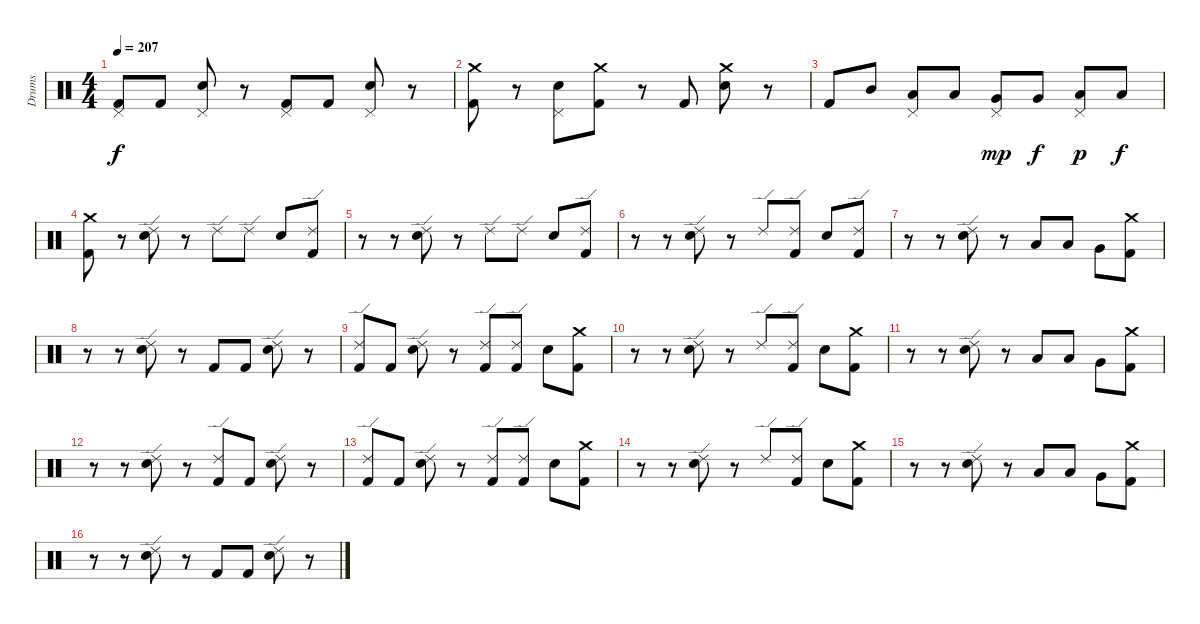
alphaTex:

\track ("Drums" "Drums") {instrument percussion}
\staff {score}
\articulation defaults
\ts (4 4)
\tempo 207
\clef neutral
\ks c
("Pedal Hi-Hat (hit)" "Kick (hit) 2").8{dy f} "Kick (hit) 2".8 ("Pedal Hi-Hat (hit)" "Snare (hit) 2").8 r.8 ("Pedal Hi-Hat (hit)" "Kick (hit) 2").8 "Kick (hit) 2".8 ("Pedal Hi-Hat (hit)" "Snare (hit) 2").8 r.8 |
("Crash medium (hit)" "Kick (hit) 2").8 r.8 ("Pedal Hi-Hat (hit)" "Snare (hit) 2").8 ("Crash medium (hit)" "Kick (hit) 2").8 r.8 "Kick (hit) 2".8 ("Crash medium (hit)" "Snare (hit) 2").8 r.8 |
"Kick (hit) 2".8 "Mid Tom (hit)".8 ("Pedal Hi-Hat (hit)" "Low Tom (hit)").8 "Low Tom (hit)".8 ("Pedal Hi-Hat (hit)" "Very Low Tom (hit)").8{dy mp} "Very Low Tom (hit)".8{dy f} ("Pedal Hi-Hat (hit)" "Low Floor Tom (hit)").8{dy p} "Low Floor Tom (hit)".8{dy f} |
("Crash medium (hit)" "Kick (hit) 2").8 r.8 ("Ride (edge) 2" "Snare (hit) 2").8 r.8 "Ride (edge) 2".8 "Ride (edge) 2".8 "Snare (hit) 2".8 ("Ride (edge) 2" "Kick (hit) 2").8 |
r.8 r.8 ("Ride (edge) 2" "Snare (hit) 2").8 r.8 "Ride (edge) 2".8 "Ride (edge) 2".8 "Snare (hit) 2".8 ("Ride (edge) 2" "Kick (hit) 2").8 |
r.8 r.8 ("Ride (edge) 2" "Snare (hit) 2").8 r.8 "Ride (edge) 2".8 ("Ride (edge) 2" "Kick (hit) 2").8 "Snare (hit) 2".8 ("Ride (edge) 2" "Kick (hit) 2").8 |
r.8 r.8 ("Ride (edge) 2" "Snare (hit) 2").8 r.8 "Low Tom (hit)".8 "Low Tom (hit)".8 "Very Low Tom (hit)".8 ("Crash medium (hit)" "Kick (hit) 2").8 |
r.8 r.8 ("Ride (edge) 2" "Snare (hit) 2").8 r.8 "Kick (hit) 2".8 "Kick (hit) 2".8 ("Ride (edge) 2" "Snare (hit) 2").8 r.8 |
("Ride (edge) 2" "Kick (hit) 2").8 "Kick (hit) 2".8 ("Ride (edge) 2" "Snare (hit) 2").8 r.8 ("Ride (edge) 2" "Kick (hit) 2").8 ("Ride (edge) 2" "Kick (hit) 2").8 "Snare (hit) 2".8 ("Crash medium (hit)" "Kick (hit) 2").8 |
r.8 r.8 ("Ride (edge) 2" "Snare (hit) 2").8 r.8 "Ride (edge) 2".8 ("Ride (edge) 2" "Kick (hit) 2").8 "Snare (hit) 2".8 ("Crash medium (hit)" "Kick (hit) 2").8 |
r.8 r.8 ("Ride (edge) 2" "Snare (hit) 2").8 r.8 "Low Tom (hit)".8 "Low Tom (hit)".8 "Very Low Tom (hit)".8 ("Crash medium (hit)" "Kick (hit) 2").8 |
r.8 r.8 ("Ride (edge) 2" "Snare (hit) 2").8 r.8 ("Ride (edge) 2" "Kick (hit) 2").8 "Kick (hit) 2".8 ("Ride (edge) 2" "Snare (hit) 2").8 r.8 |
("Ride (edge) 2" "Kick (hit) 2").8 "Kick (hit) 2".8 ("Ride (edge) 2" "Snare (hit) 2").8 r.8 ("Ride (edge) 2" "Kick (hit) 2").8 ("Ride (edge) 2" "Kick (hit) 2").8 "Snare (hit) 2".8 ("Crash medium (hit)" "Kick (hit) 2").8 |
r.8 r.8 ("Ride (edge) 2" "Snare (hit) 2").8 r.8 "Ride (edge) 2".8 ("Ride (edge) 2" "Kick (hit) 2").8 "Snare (hit) 2".8 ("Crash medium (hit)" "Kick (hit) 2").8 |
r.8 r.8 ("Ride (edge) 2" "Snare (hit) 2").8 r.8 "Low Tom (hit)".8 "Low Tom (hit)".8 "Very Low Tom (hit)".8 ("Crash medium (hit)" "Kick (hit) 2").8 |
r.8 r.8 ("Ride (edge) 2" "Snare (hit) 2").8 r.8 "Kick (hit) 2".8 "Kick (hit) 2".8 ("Ride (edge) 2" "Snare (hit) 2").8 r.8
